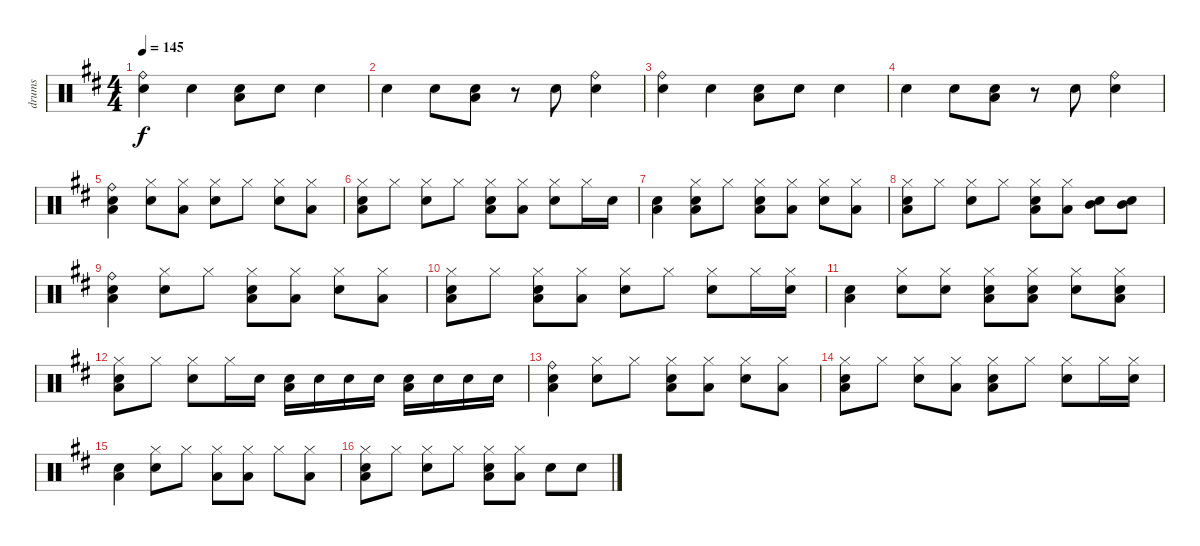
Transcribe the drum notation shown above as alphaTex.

\track ("drums" "drums") {instrument percussion}
\staff {score}
\articulation defaults
\ts (4 4)
\tempo 145
\clef neutral
\ks d
("Electric Snare (hit)" "Ride (bell)").4{dy f} "Electric Snare (hit)".4 ("Electric Snare (hit)" "Low Floor Tom (hit)").8 "Electric Snare (hit)".8 "Electric Snare (hit)".4 |
"Electric Snare (hit)".4 "Electric Snare (hit)".8 ("Electric Snare (hit)" "Low Floor Tom (hit)").8 r.8 "Electric Snare (hit)".8 ("Electric Snare (hit)" "Ride (bell)").4 |
("Electric Snare (hit)" "Ride (bell)").4 "Electric Snare (hit)".4 ("Electric Snare (hit)" "Low Floor Tom (hit)").8 "Electric Snare (hit)".8 "Electric Snare (hit)".4 |
"Electric Snare (hit)".4 "Electric Snare (hit)".8 ("Electric Snare (hit)" "Low Floor Tom (hit)").8 r.8 "Electric Snare (hit)".8 ("Electric Snare (hit)" "Ride (bell)").4 |
("Electric Snare (hit)" "Ride (bell)" "Low Floor Tom (hit)").4 ("Electric Snare (hit)" "Hi-Hat (closed)").8 ("Hi-Hat (closed)" "Low Floor Tom (hit)").8 ("Electric Snare (hit)" "Hi-Hat (closed)").8 "Hi-Hat (closed)".8 ("Electric Snare (hit)" "Hi-Hat (closed)").8 ("Hi-Hat (closed)" "Low Floor Tom (hit)").8 |
("Electric Snare (hit)" "Hi-Hat (closed)" "Low Floor Tom (hit)").8 "Hi-Hat (closed)".8 ("Electric Snare (hit)" "Hi-Hat (closed)").8 "Hi-Hat (closed)".8 ("Electric Snare (hit)" "Hi-Hat (closed)" "Low Floor Tom (hit)").8 ("Hi-Hat (closed)" "Low Floor Tom (hit)").8 ("Electric Snare (hit)" "Hi-Hat (closed)").8 "Hi-Hat (closed)".16 "Electric Snare (hit)".16 |
("Electric Snare (hit)" "Low Floor Tom (hit)").4 ("Electric Snare (hit)" "Hi-Hat (closed)" "Low Floor Tom (hit)").8 "Hi-Hat (closed)".8 ("Electric Snare (hit)" "Hi-Hat (closed)" "Low Floor Tom (hit)").8 ("Hi-Hat (closed)" "Low Floor Tom (hit)").8 ("Electric Snare (hit)" "Hi-Hat (closed)").8 ("Hi-Hat (closed)" "Low Floor Tom (hit)").8 |
("Electric Snare (hit)" "Hi-Hat (closed)" "Low Floor Tom (hit)").8 "Hi-Hat (closed)".8 ("Electric Snare (hit)" "Hi-Hat (closed)").8 "Hi-Hat (closed)".8 ("Electric Snare (hit)" "Hi-Hat (closed)" "Low Floor Tom (hit)").8 ("Hi-Hat (closed)" "Low Floor Tom (hit)").8 ("Electric Snare (hit)" "Mid Tom (hit)").8 ("Electric Snare (hit)" "Mid Tom (hit)").8 |
("Ride (bell)" "Electric Snare (hit)" "Low Floor Tom (hit)").4 ("Hi-Hat (closed)" "Electric Snare (hit)").8 "Hi-Hat (closed)".8 ("Hi-Hat (closed)" "Electric Snare (hit)" "Low Floor Tom (hit)").8 ("Hi-Hat (closed)" "Low Floor Tom (hit)").8 ("Hi-Hat (closed)" "Electric Snare (hit)").8 ("Hi-Hat (closed)" "Low Floor Tom (hit)").8 |
("Hi-Hat (closed)" "Electric Snare (hit)" "Low Floor Tom (hit)").8 "Hi-Hat (closed)".8 ("Hi-Hat (closed)" "Electric Snare (hit)" "Low Floor Tom (hit)").8 ("Hi-Hat (closed)" "Low Floor Tom (hit)").8 ("Hi-Hat (closed)" "Electric Snare (hit)").8 "Hi-Hat (closed)".8 ("Hi-Hat (closed)" "Electric Snare (hit)").8 "Hi-Hat (closed)".16 ("Hi-Hat (closed)" "Electric Snare (hit)").16 |
("Electric Snare (hit)" "Low Floor Tom (hit)").4 ("Hi-Hat (closed)" "Electric Snare (hit)").8 ("Hi-Hat (closed)" "Electric Snare (hit)").8 ("Hi-Hat (closed)" "Electric Snare (hit)" "Low Floor Tom (hit)").8 ("Hi-Hat (closed)" "Electric Snare (hit)" "Low Floor Tom (hit)").8 ("Hi-Hat (closed)" "Electric Snare (hit)").8 ("Hi-Hat (closed)" "Electric Snare (hit)" "Low Floor Tom (hit)").8 |
("Hi-Hat (closed)" "Electric Snare (hit)" "Low Floor Tom (hit)").8 "Hi-Hat (closed)".8 ("Hi-Hat (closed)" "Electric Snare (hit)").8 "Hi-Hat (closed)".16 "Electric Snare (hit)".16 ("Electric Snare (hit)" "Low Floor Tom (hit)").16 "Electric Snare (hit)".16 "Electric Snare (hit)".16 "Electric Snare (hit)".16 ("Electric Snare (hit)" "Low Floor Tom (hit)").16 "Electric Snare (hit)".16 "Electric Snare (hit)".16 "Electric Snare (hit)".16 |
("Ride (bell)" "Electric Snare (hit)" "Low Floor Tom (hit)").4 ("Hi-Hat (closed)" "Electric Snare (hit)").8 "Hi-Hat (closed)".8 ("Hi-Hat (closed)" "Electric Snare (hit)" "Low Floor Tom (hit)").8 ("Hi-Hat (closed)" "Low Floor Tom (hit)").8 ("Hi-Hat (closed)" "Electric Snare (hit)").8 ("Hi-Hat (closed)" "Low Floor Tom (hit)").8 |
("Hi-Hat (closed)" "Electric Snare (hit)" "Low Floor Tom (hit)").8 "Hi-Hat (closed)".8 ("Hi-Hat (closed)" "Electric Snare (hit)").8 ("Hi-Hat (closed)" "Low Floor Tom (hit)").8 ("Hi-Hat (closed)" "Electric Snare (hit)" "Low Floor Tom (hit)").8 "Hi-Hat (closed)".8 ("Hi-Hat (closed)" "Electric Snare (hit)").8 "Hi-Hat (closed)".16 ("Hi-Hat (closed)" "Electric Snare (hit)").16 |
("Electric Snare (hit)" "Low Floor Tom (hit)").4 ("Hi-Hat (closed)" "Electric Snare (hit)").8 "Hi-Hat (closed)".8 ("Hi-Hat (closed)" "Low Floor Tom (hit)").8 ("Hi-Hat (closed)" "Low Floor Tom (hit)").8 "Hi-Hat (closed)".8 ("Hi-Hat (closed)" "Low Floor Tom (hit)").8 |
("Hi-Hat (closed)" "Electric Snare (hit)" "Low Floor Tom (hit)").8 "Hi-Hat (closed)".8 ("Hi-Hat (closed)" "Electric Snare (hit)").8 "Hi-Hat (closed)".8 ("Hi-Hat (closed)" "Electric Snare (hit)" "Low Floor Tom (hit)").8 ("Hi-Hat (closed)" "Low Floor Tom (hit)").8 "Electric Snare (hit)".8 "Electric Snare (hit)".8
